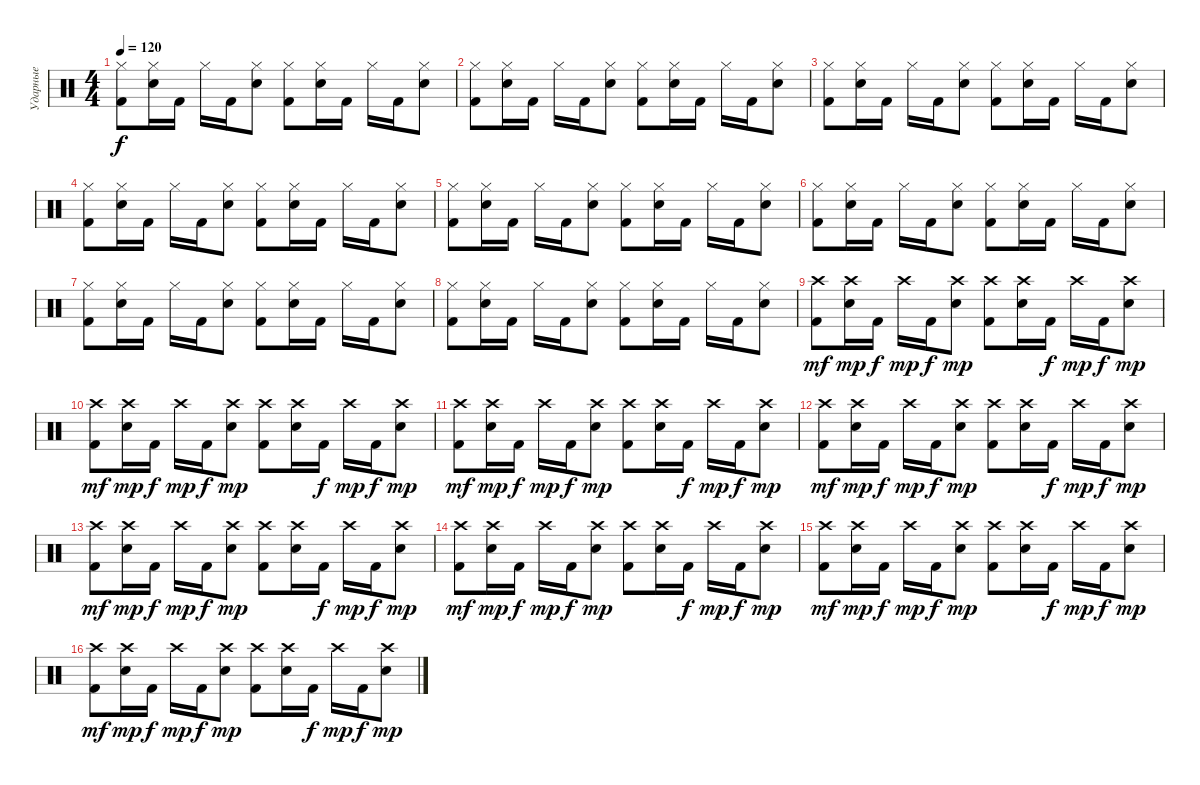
\track ("Ударные" "Ударные") {instrument percussion}
\staff {score}
\articulation defaults
\ts (4 4)
\tempo 120
\clef neutral
\ks c
("Hi-Hat (closed)" "Kick (hit) 2").8{dy f} ("Hi-Hat (closed)" "Electric Snare (hit)").16 "Kick (hit) 2".16 "Hi-Hat (closed)".16 "Kick (hit) 2".16 ("Hi-Hat (closed)" "Electric Snare (hit)").8 ("Hi-Hat (closed)" "Kick (hit) 2").8 ("Hi-Hat (closed)" "Electric Snare (hit)").16 "Kick (hit) 2".16 "Hi-Hat (closed)".16 "Kick (hit) 2".16 ("Hi-Hat (closed)" "Electric Snare (hit)").8 |
("Hi-Hat (closed)" "Kick (hit) 2").8 ("Hi-Hat (closed)" "Electric Snare (hit)").16 "Kick (hit) 2".16 "Hi-Hat (closed)".16 "Kick (hit) 2".16 ("Hi-Hat (closed)" "Electric Snare (hit)").8 ("Hi-Hat (closed)" "Kick (hit) 2").8 ("Hi-Hat (closed)" "Electric Snare (hit)").16 "Kick (hit) 2".16 "Hi-Hat (closed)".16 "Kick (hit) 2".16 ("Hi-Hat (closed)" "Electric Snare (hit)").8 |
("Hi-Hat (closed)" "Kick (hit) 2").8 ("Hi-Hat (closed)" "Electric Snare (hit)").16 "Kick (hit) 2".16 "Hi-Hat (closed)".16 "Kick (hit) 2".16 ("Hi-Hat (closed)" "Electric Snare (hit)").8 ("Hi-Hat (closed)" "Kick (hit) 2").8 ("Hi-Hat (closed)" "Electric Snare (hit)").16 "Kick (hit) 2".16 "Hi-Hat (closed)".16 "Kick (hit) 2".16 ("Hi-Hat (closed)" "Electric Snare (hit)").8 |
("Hi-Hat (closed)" "Kick (hit) 2").8 ("Hi-Hat (closed)" "Electric Snare (hit)").16 "Kick (hit) 2".16 "Hi-Hat (closed)".16 "Kick (hit) 2".16 ("Hi-Hat (closed)" "Electric Snare (hit)").8 ("Hi-Hat (closed)" "Kick (hit) 2").8 ("Hi-Hat (closed)" "Electric Snare (hit)").16 "Kick (hit) 2".16 "Hi-Hat (closed)".16 "Kick (hit) 2".16 ("Hi-Hat (closed)" "Electric Snare (hit)").8 |
("Hi-Hat (closed)" "Kick (hit) 2").8 ("Hi-Hat (closed)" "Electric Snare (hit)").16 "Kick (hit) 2".16 "Hi-Hat (closed)".16 "Kick (hit) 2".16 ("Hi-Hat (closed)" "Electric Snare (hit)").8 ("Hi-Hat (closed)" "Kick (hit) 2").8 ("Hi-Hat (closed)" "Electric Snare (hit)").16 "Kick (hit) 2".16 "Hi-Hat (closed)".16 "Kick (hit) 2".16 ("Hi-Hat (closed)" "Electric Snare (hit)").8 |
("Hi-Hat (closed)" "Kick (hit) 2").8 ("Hi-Hat (closed)" "Electric Snare (hit)").16 "Kick (hit) 2".16 "Hi-Hat (closed)".16 "Kick (hit) 2".16 ("Hi-Hat (closed)" "Electric Snare (hit)").8 ("Hi-Hat (closed)" "Kick (hit) 2").8 ("Hi-Hat (closed)" "Electric Snare (hit)").16 "Kick (hit) 2".16 "Hi-Hat (closed)".16 "Kick (hit) 2".16 ("Hi-Hat (closed)" "Electric Snare (hit)").8 |
("Hi-Hat (closed)" "Kick (hit) 2").8 ("Hi-Hat (closed)" "Electric Snare (hit)").16 "Kick (hit) 2".16 "Hi-Hat (closed)".16 "Kick (hit) 2".16 ("Hi-Hat (closed)" "Electric Snare (hit)").8 ("Hi-Hat (closed)" "Kick (hit) 2").8 ("Hi-Hat (closed)" "Electric Snare (hit)").16 "Kick (hit) 2".16 "Hi-Hat (closed)".16 "Kick (hit) 2".16 ("Hi-Hat (closed)" "Electric Snare (hit)").8 |
("Hi-Hat (closed)" "Kick (hit) 2").8 ("Hi-Hat (closed)" "Electric Snare (hit)").16 "Kick (hit) 2".16 "Hi-Hat (closed)".16 "Kick (hit) 2".16 ("Hi-Hat (closed)" "Electric Snare (hit)").8 ("Hi-Hat (closed)" "Kick (hit) 2").8 ("Hi-Hat (closed)" "Electric Snare (hit)").16 "Kick (hit) 2".16 "Hi-Hat (closed)".16 "Kick (hit) 2".16 ("Hi-Hat (closed)" "Electric Snare (hit)").8 |
("Crash high (hit)" "Kick (hit) 2").8{dy mf} ("Crash high (hit)" "Electric Snare (hit)").16{dy mp} "Kick (hit) 2".16{dy f} "Crash high (hit)".16{dy mp} "Kick (hit) 2".16{dy f} ("Crash high (hit)" "Electric Snare (hit)").8{dy mp} ("Crash high (hit)" "Kick (hit) 2").8 ("Crash high (hit)" "Electric Snare (hit)").16 "Kick (hit) 2".16{dy f} "Crash high (hit)".16{dy mp} "Kick (hit) 2".16{dy f} ("Crash high (hit)" "Electric Snare (hit)").8{dy mp} |
("Crash high (hit)" "Kick (hit) 2").8{dy mf} ("Crash high (hit)" "Electric Snare (hit)").16{dy mp} "Kick (hit) 2".16{dy f} "Crash high (hit)".16{dy mp} "Kick (hit) 2".16{dy f} ("Crash high (hit)" "Electric Snare (hit)").8{dy mp} ("Crash high (hit)" "Kick (hit) 2").8 ("Crash high (hit)" "Electric Snare (hit)").16 "Kick (hit) 2".16{dy f} "Crash high (hit)".16{dy mp} "Kick (hit) 2".16{dy f} ("Crash high (hit)" "Electric Snare (hit)").8{dy mp} |
("Crash high (hit)" "Kick (hit) 2").8{dy mf} ("Crash high (hit)" "Electric Snare (hit)").16{dy mp} "Kick (hit) 2".16{dy f} "Crash high (hit)".16{dy mp} "Kick (hit) 2".16{dy f} ("Crash high (hit)" "Electric Snare (hit)").8{dy mp} ("Crash high (hit)" "Kick (hit) 2").8 ("Crash high (hit)" "Electric Snare (hit)").16 "Kick (hit) 2".16{dy f} "Crash high (hit)".16{dy mp} "Kick (hit) 2".16{dy f} ("Crash high (hit)" "Electric Snare (hit)").8{dy mp} |
("Crash high (hit)" "Kick (hit) 2").8{dy mf} ("Crash high (hit)" "Electric Snare (hit)").16{dy mp} "Kick (hit) 2".16{dy f} "Crash high (hit)".16{dy mp} "Kick (hit) 2".16{dy f} ("Crash high (hit)" "Electric Snare (hit)").8{dy mp} ("Crash high (hit)" "Kick (hit) 2").8 ("Crash high (hit)" "Electric Snare (hit)").16 "Kick (hit) 2".16{dy f} "Crash high (hit)".16{dy mp} "Kick (hit) 2".16{dy f} ("Crash high (hit)" "Electric Snare (hit)").8{dy mp} |
("Crash high (hit)" "Kick (hit) 2").8{dy mf} ("Crash high (hit)" "Electric Snare (hit)").16{dy mp} "Kick (hit) 2".16{dy f} "Crash high (hit)".16{dy mp} "Kick (hit) 2".16{dy f} ("Crash high (hit)" "Electric Snare (hit)").8{dy mp} ("Crash high (hit)" "Kick (hit) 2").8 ("Crash high (hit)" "Electric Snare (hit)").16 "Kick (hit) 2".16{dy f} "Crash high (hit)".16{dy mp} "Kick (hit) 2".16{dy f} ("Crash high (hit)" "Electric Snare (hit)").8{dy mp} |
("Crash high (hit)" "Kick (hit) 2").8{dy mf} ("Crash high (hit)" "Electric Snare (hit)").16{dy mp} "Kick (hit) 2".16{dy f} "Crash high (hit)".16{dy mp} "Kick (hit) 2".16{dy f} ("Crash high (hit)" "Electric Snare (hit)").8{dy mp} ("Crash high (hit)" "Kick (hit) 2").8 ("Crash high (hit)" "Electric Snare (hit)").16 "Kick (hit) 2".16{dy f} "Crash high (hit)".16{dy mp} "Kick (hit) 2".16{dy f} ("Crash high (hit)" "Electric Snare (hit)").8{dy mp} |
("Crash high (hit)" "Kick (hit) 2").8{dy mf} ("Crash high (hit)" "Electric Snare (hit)").16{dy mp} "Kick (hit) 2".16{dy f} "Crash high (hit)".16{dy mp} "Kick (hit) 2".16{dy f} ("Crash high (hit)" "Electric Snare (hit)").8{dy mp} ("Crash high (hit)" "Kick (hit) 2").8 ("Crash high (hit)" "Electric Snare (hit)").16 "Kick (hit) 2".16{dy f} "Crash high (hit)".16{dy mp} "Kick (hit) 2".16{dy f} ("Crash high (hit)" "Electric Snare (hit)").8{dy mp} |
("Crash high (hit)" "Kick (hit) 2").8{dy mf} ("Crash high (hit)" "Electric Snare (hit)").16{dy mp} "Kick (hit) 2".16{dy f} "Crash high (hit)".16{dy mp} "Kick (hit) 2".16{dy f} ("Crash high (hit)" "Electric Snare (hit)").8{dy mp} ("Crash high (hit)" "Kick (hit) 2").8 ("Crash high (hit)" "Electric Snare (hit)").16 "Kick (hit) 2".16{dy f} "Crash high (hit)".16{dy mp} "Kick (hit) 2".16{dy f} ("Crash high (hit)" "Electric Snare (hit)").8{dy mp}
